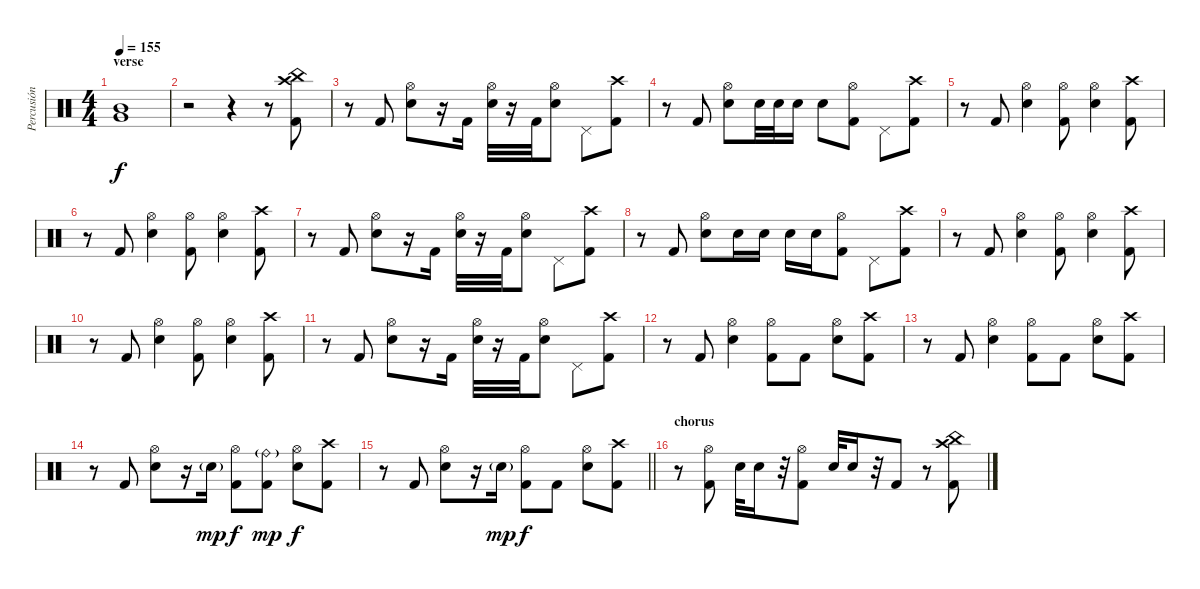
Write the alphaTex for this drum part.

\track ("Percusión" "Percusión") {instrument percussion}
\staff {score}
\articulation defaults
\ts (4 4)
\section ("" "verse")
\tempo 155
\clef neutral
\ks c
("Mid Tom (hit)" "Very Low Tom (hit)").1{dy f} |
r.2 r.4 r.8 ("China (hit)" "Crash high (hit)" "Kick (hit) 2").8 |
r.8 "Kick (hit) 2".8 ("Hi-Hat (open)" "Snare (hit) 2").8 r.16 "Kick (hit) 2".16 ("Hi-Hat (open)" "Snare (hit) 2").32 r.16 "Kick (hit) 2".32 ("Hi-Hat (open)" "Snare (hit) 2").8 "Pedal Hi-Hat (hit)".8 ("Crash high (hit)" "Kick (hit) 2").8 |
r.8 "Kick (hit) 2".8 ("Hi-Hat (open)" "Snare (hit) 2").8 "Snare (hit) 2".32 "Snare (hit) 2".32 "Snare (hit) 2".16 "Snare (hit) 2".8 ("Hi-Hat (open)" "Kick (hit) 2").8 "Pedal Hi-Hat (hit)".8 ("Crash high (hit)" "Kick (hit) 2").8 |
r.8 "Kick (hit) 2".8 ("Hi-Hat (open)" "Snare (hit) 2").4 ("Hi-Hat (open)" "Kick (hit) 2").8 ("Hi-Hat (open)" "Snare (hit) 2").4 ("Crash high (hit)" "Kick (hit) 2").8 |
r.8 "Kick (hit) 2".8 ("Hi-Hat (open)" "Snare (hit) 2").4 ("Hi-Hat (open)" "Kick (hit) 2").8 ("Hi-Hat (open)" "Snare (hit) 2").4 ("Crash high (hit)" "Kick (hit) 2").8 |
r.8 "Kick (hit) 2".8 ("Hi-Hat (open)" "Snare (hit) 2").8 r.16 "Kick (hit) 2".16 ("Hi-Hat (open)" "Snare (hit) 2").32 r.16 "Kick (hit) 2".32 ("Hi-Hat (open)" "Snare (hit) 2").8 "Pedal Hi-Hat (hit)".8 ("Crash high (hit)" "Kick (hit) 2").8 |
r.8 "Kick (hit) 2".8 ("Hi-Hat (open)" "Snare (hit) 2").8 "Snare (hit) 2".16 "Snare (hit) 2".16 "Snare (hit) 2".16 "Snare (hit) 2".16 ("Hi-Hat (open)" "Kick (hit) 2").8 "Pedal Hi-Hat (hit)".8 ("Crash high (hit)" "Kick (hit) 2").8 |
r.8 "Kick (hit) 2".8 ("Hi-Hat (open)" "Snare (hit) 2").4 ("Hi-Hat (open)" "Kick (hit) 2").8 ("Hi-Hat (open)" "Snare (hit) 2").4 ("Crash high (hit)" "Kick (hit) 2").8 |
r.8 "Kick (hit) 2".8 ("Hi-Hat (open)" "Snare (hit) 2").4 ("Hi-Hat (open)" "Kick (hit) 2").8 ("Hi-Hat (open)" "Snare (hit) 2").4 ("Crash high (hit)" "Kick (hit) 2").8 |
r.8 "Kick (hit) 2".8 ("Hi-Hat (open)" "Snare (hit) 2").8 r.16 "Kick (hit) 2".16 ("Hi-Hat (open)" "Snare (hit) 2").32 r.16 "Kick (hit) 2".32 ("Hi-Hat (open)" "Snare (hit) 2").8 "Pedal Hi-Hat (hit)".8 ("Crash high (hit)" "Kick (hit) 2").8 |
r.8 "Kick (hit) 2".8 ("Hi-Hat (open)" "Snare (hit) 2").4 ("Hi-Hat (open)" "Kick (hit) 2").8 "Kick (hit) 2".8 ("Hi-Hat (open)" "Snare (hit) 2").8 ("Crash high (hit)" "Kick (hit) 2").8 |
r.8 "Kick (hit) 2".8 ("Hi-Hat (open)" "Snare (hit) 2").4 ("Hi-Hat (open)" "Kick (hit) 2").8 "Kick (hit) 2".8 ("Hi-Hat (open)" "Snare (hit) 2").8 ("Crash high (hit)" "Kick (hit) 2").8 |
r.8 "Kick (hit) 2".8 ("Hi-Hat (open)" "Snare (hit) 2").8 r.16 "Snare (hit) 2"{g}.16{dy mp} ("Hi-Hat (open)" "Kick (hit) 2").8{dy f} ("Ride (bell)"{g} "Kick (hit) 2").8{dy mp} ("Hi-Hat (open)" "Snare (hit) 2").8{dy f} ("Crash high (hit)" "Kick (hit) 2").8 |
\barLineRight lightlight
r.8 "Kick (hit) 2".8 ("Hi-Hat (open)" "Snare (hit) 2").8 r.16 "Snare (hit) 2"{g}.16{dy mp} ("Hi-Hat (open)" "Kick (hit) 2").8{dy f} "Kick (hit) 2".8 ("Hi-Hat (open)" "Snare (hit) 2").8 ("Crash high (hit)" "Kick (hit) 2").8 |
\section ("" "chorus")
r.8 ("Hi-Hat (open)" "Kick (hit) 2").8 "Snare (hit) 2".32 "Snare (hit) 2".16 r.32 ("Hi-Hat (open)" "Kick (hit) 2").8 "Snare (hit) 2".32 "Snare (hit) 2".16 r.32 "Kick (hit) 2".8 r.8 ("China (hit)" "Crash high (hit)" "Kick (hit) 2").8
